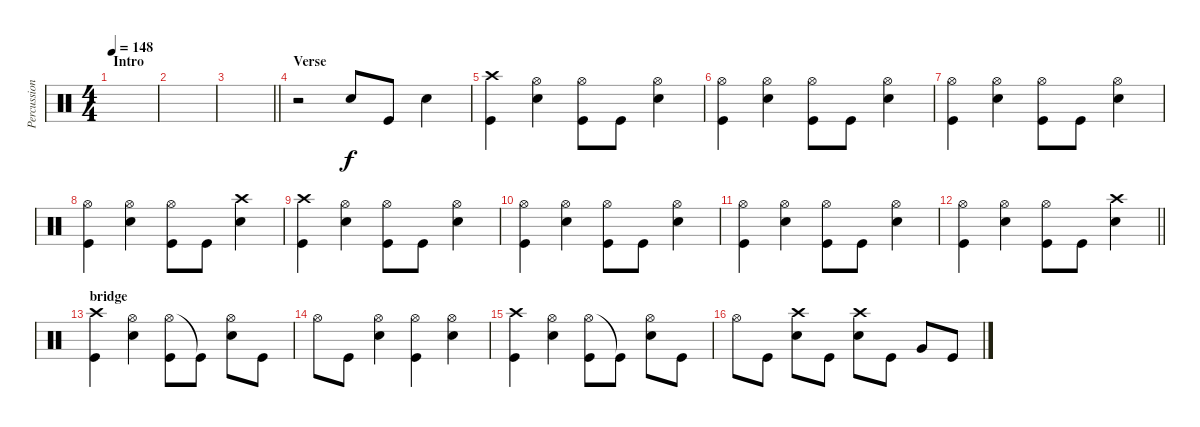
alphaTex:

\track ("Percussion" "Percussion") {instrument percussion}
\staff {score}
\articulation defaults
\ts (4 4)
\section ("" "Intro")
\tempo 148
\clef neutral
\ks c
|
|
\barLineRight lightlight
|
\section ("" "Verse")
r.2 "Snare (hit) 2".8 "Kick (hit)".8 "Snare (hit) 2".4 |
("Crash high (hit)" "Kick (hit)").4 ("Snare (hit) 2" "Hi-Hat (open)").4 ("Kick (hit)" "Hi-Hat (open)").8 "Kick (hit)".8 ("Electric Snare (hit)" "Hi-Hat (open)").4 |
("Hi-Hat (open)" "Kick (hit)").4 ("Snare (hit) 2" "Hi-Hat (open)").4 ("Kick (hit)" "Hi-Hat (open)").8 "Kick (hit)".8 ("Electric Snare (hit)" "Hi-Hat (open)").4 |
("Hi-Hat (open)" "Kick (hit)").4 ("Snare (hit) 2" "Hi-Hat (open)").4 ("Kick (hit)" "Hi-Hat (open)").8 "Kick (hit)".8 ("Electric Snare (hit)" "Hi-Hat (open)").4 |
("Hi-Hat (open)" "Kick (hit)").4 ("Snare (hit) 2" "Hi-Hat (open)").4 ("Kick (hit)" "Hi-Hat (open)").8 "Kick (hit)".8 ("Electric Snare (hit)" "Crash high (hit)").4 |
("Crash high (hit)" "Kick (hit)").4 ("Snare (hit) 2" "Hi-Hat (open)").4 ("Kick (hit)" "Hi-Hat (open)").8 "Kick (hit)".8 ("Electric Snare (hit)" "Hi-Hat (open)").4 |
("Hi-Hat (open)" "Kick (hit)").4 ("Snare (hit) 2" "Hi-Hat (open)").4 ("Kick (hit)" "Hi-Hat (open)").8 "Kick (hit)".8 ("Electric Snare (hit)" "Hi-Hat (open)").4 |
("Hi-Hat (open)" "Kick (hit)").4 ("Snare (hit) 2" "Hi-Hat (open)").4 ("Kick (hit)" "Hi-Hat (open)").8 "Kick (hit)".8 ("Electric Snare (hit)" "Hi-Hat (open)").4 |
\barLineRight lightlight
("Hi-Hat (open)" "Kick (hit)").4 ("Snare (hit) 2" "Hi-Hat (open)").4 ("Kick (hit)" "Hi-Hat (open)").8 "Kick (hit)".8 ("Electric Snare (hit)" "Crash high (hit)").4 |
\section ("" "bridge")
("Crash high (hit)" "Kick (hit)").4 ("Hi-Hat (open)" "Electric Snare (hit)").4 ("Hi-Hat (open)" "Kick (hit)").8 "Kick (hit)"{t}.8 ("Hi-Hat (open)" "Electric Snare (hit)").8 "Kick (hit)".8 |
"Hi-Hat (open)".8 "Kick (hit)".8 ("Hi-Hat (open)" "Electric Snare (hit)").4 ("Hi-Hat (open)" "Kick (hit)").4 ("Hi-Hat (open)" "Electric Snare (hit)").4 |
("Crash high (hit)" "Kick (hit)").4 ("Hi-Hat (open)" "Electric Snare (hit)").4 ("Hi-Hat (open)" "Kick (hit)").8 "Kick (hit)"{t}.8 ("Hi-Hat (open)" "Electric Snare (hit)").8 "Kick (hit)".8 |
"Hi-Hat (open)".8 "Kick (hit)".8 ("Crash high (hit)" "Electric Snare (hit)").8 "Kick (hit)".8 ("Crash high (hit)" "Electric Snare (hit)").8 "Kick (hit)".8 "Very Low Tom (hit)".8 "Kick (hit)".8
